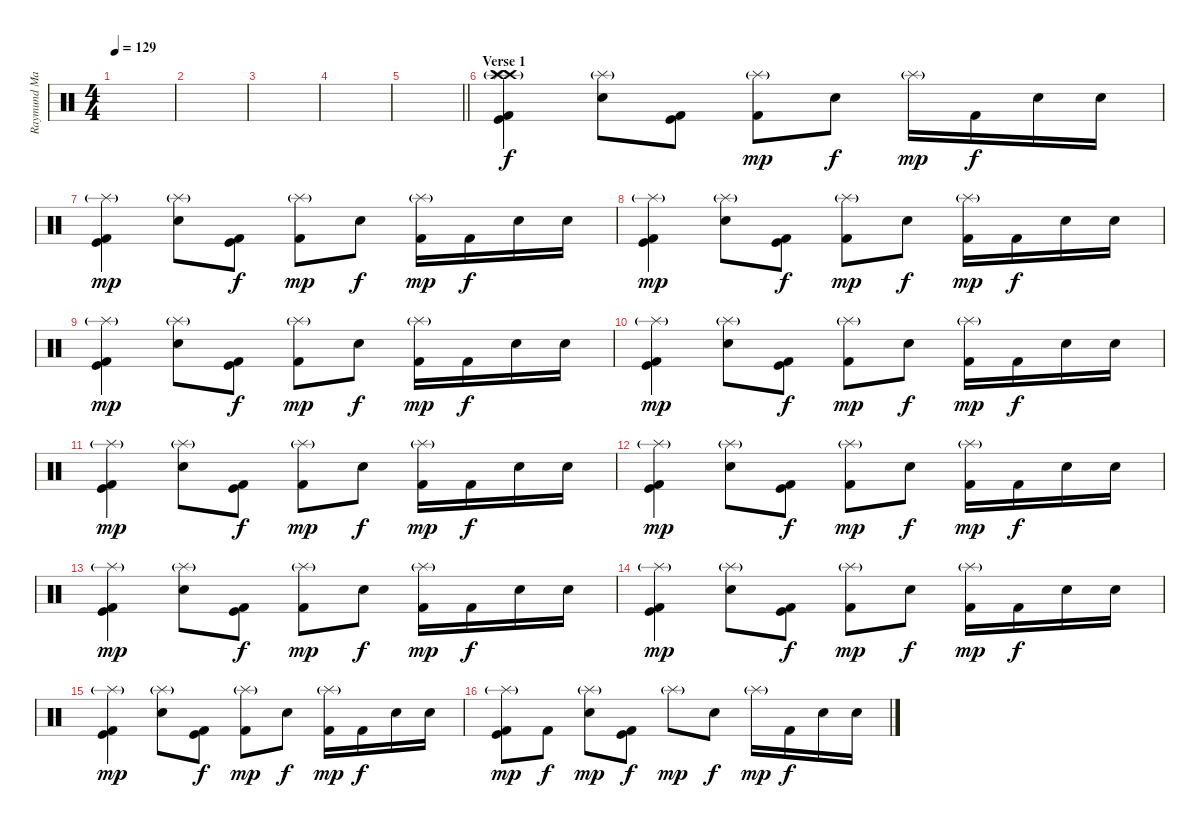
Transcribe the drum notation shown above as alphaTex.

\track ("Raymund Marasigan(Drums)" "Raymund Ma") {instrument percussion}
\staff {score}
\articulation defaults
\ts (4 4)
\tempo 129
\clef neutral
\ks c
|
|
|
|
\barLineRight lightlight
|
\section ("" "Verse 1")
("Crash high (hit)"{g} "Crash high (hit)"{g} "Kick (hit) 2" "Kick (hit)" "Splash (hit)"{g}).4 ("Electric Snare (hit)" "Splash (hit)"{g}).8 ("Kick (hit) 2" "Kick (hit)").8{dy f} ("Kick (hit) 2" "Splash (hit)"{g}).8{dy mp} "Electric Snare (hit)".8{dy f} "Splash (hit)"{g}.16{dy mp} "Kick (hit) 2".16{dy f} "Electric Snare (hit)".16 "Electric Snare (hit)".16 |
("Kick (hit) 2" "Kick (hit)" "Splash (hit)"{g}).4{dy mp} ("Electric Snare (hit)" "Splash (hit)"{g}).8 ("Kick (hit) 2" "Kick (hit)").8{dy f} ("Kick (hit) 2" "Splash (hit)"{g}).8{dy mp} "Electric Snare (hit)".8{dy f} ("Splash (hit)"{g} "Kick (hit) 2").16{dy mp} "Kick (hit) 2".16{dy f} "Electric Snare (hit)".16 "Electric Snare (hit)".16 |
("Kick (hit) 2" "Kick (hit)" "Splash (hit)"{g}).4{dy mp} ("Electric Snare (hit)" "Splash (hit)"{g}).8 ("Kick (hit) 2" "Kick (hit)").8{dy f} ("Kick (hit) 2" "Splash (hit)"{g}).8{dy mp} "Electric Snare (hit)".8{dy f} ("Splash (hit)"{g} "Kick (hit) 2").16{dy mp} "Kick (hit) 2".16{dy f} "Electric Snare (hit)".16 "Electric Snare (hit)".16 |
("Kick (hit) 2" "Kick (hit)" "Splash (hit)"{g}).4{dy mp} ("Electric Snare (hit)" "Splash (hit)"{g}).8 ("Kick (hit) 2" "Kick (hit)").8{dy f} ("Kick (hit) 2" "Splash (hit)"{g}).8{dy mp} "Electric Snare (hit)".8{dy f} ("Splash (hit)"{g} "Kick (hit) 2").16{dy mp} "Kick (hit) 2".16{dy f} "Electric Snare (hit)".16 "Electric Snare (hit)".16 |
("Kick (hit) 2" "Kick (hit)" "Splash (hit)"{g}).4{dy mp} ("Electric Snare (hit)" "Splash (hit)"{g}).8 ("Kick (hit) 2" "Kick (hit)").8{dy f} ("Kick (hit) 2" "Splash (hit)"{g}).8{dy mp} "Electric Snare (hit)".8{dy f} ("Splash (hit)"{g} "Kick (hit) 2").16{dy mp} "Kick (hit) 2".16{dy f} "Electric Snare (hit)".16 "Electric Snare (hit)".16 |
("Kick (hit) 2" "Kick (hit)" "Splash (hit)"{g}).4{dy mp} ("Electric Snare (hit)" "Splash (hit)"{g}).8 ("Kick (hit) 2" "Kick (hit)").8{dy f} ("Kick (hit) 2" "Splash (hit)"{g}).8{dy mp} "Electric Snare (hit)".8{dy f} ("Splash (hit)"{g} "Kick (hit) 2").16{dy mp} "Kick (hit) 2".16{dy f} "Electric Snare (hit)".16 "Electric Snare (hit)".16 |
("Kick (hit) 2" "Kick (hit)" "Splash (hit)"{g}).4{dy mp} ("Electric Snare (hit)" "Splash (hit)"{g}).8 ("Kick (hit) 2" "Kick (hit)").8{dy f} ("Kick (hit) 2" "Splash (hit)"{g}).8{dy mp} "Electric Snare (hit)".8{dy f} ("Splash (hit)"{g} "Kick (hit) 2").16{dy mp} "Kick (hit) 2".16{dy f} "Electric Snare (hit)".16 "Electric Snare (hit)".16 |
("Kick (hit) 2" "Kick (hit)" "Splash (hit)"{g}).4{dy mp} ("Electric Snare (hit)" "Splash (hit)"{g}).8 ("Kick (hit) 2" "Kick (hit)").8{dy f} ("Kick (hit) 2" "Splash (hit)"{g}).8{dy mp} "Electric Snare (hit)".8{dy f} ("Splash (hit)"{g} "Kick (hit) 2").16{dy mp} "Kick (hit) 2".16{dy f} "Electric Snare (hit)".16 "Electric Snare (hit)".16 |
("Kick (hit) 2" "Kick (hit)" "Splash (hit)"{g}).4{dy mp} ("Electric Snare (hit)" "Splash (hit)"{g}).8 ("Kick (hit) 2" "Kick (hit)").8{dy f} ("Kick (hit) 2" "Splash (hit)"{g}).8{dy mp} "Electric Snare (hit)".8{dy f} ("Splash (hit)"{g} "Kick (hit) 2").16{dy mp} "Kick (hit) 2".16{dy f} "Electric Snare (hit)".16 "Electric Snare (hit)".16 |
("Kick (hit) 2" "Kick (hit)" "Splash (hit)"{g}).4{dy mp} ("Electric Snare (hit)" "Splash (hit)"{g}).8 ("Kick (hit) 2" "Kick (hit)").8{dy f} ("Kick (hit) 2" "Splash (hit)"{g}).8{dy mp} "Electric Snare (hit)".8{dy f} ("Splash (hit)"{g} "Kick (hit) 2").16{dy mp} "Kick (hit) 2".16{dy f} "Electric Snare (hit)".16 "Electric Snare (hit)".16 |
("Kick (hit) 2" "Kick (hit)" "Splash (hit)"{g}).8{dy mp} "Kick (hit) 2".8{dy f} ("Electric Snare (hit)" "Splash (hit)"{g}).8{dy mp} ("Kick (hit) 2" "Kick (hit)").8{dy f} "Splash (hit)"{g}.8{dy mp} "Electric Snare (hit)".8{dy f} "Splash (hit)"{g}.16{dy mp} "Kick (hit) 2".16{dy f} "Electric Snare (hit)".16 "Electric Snare (hit)".16
